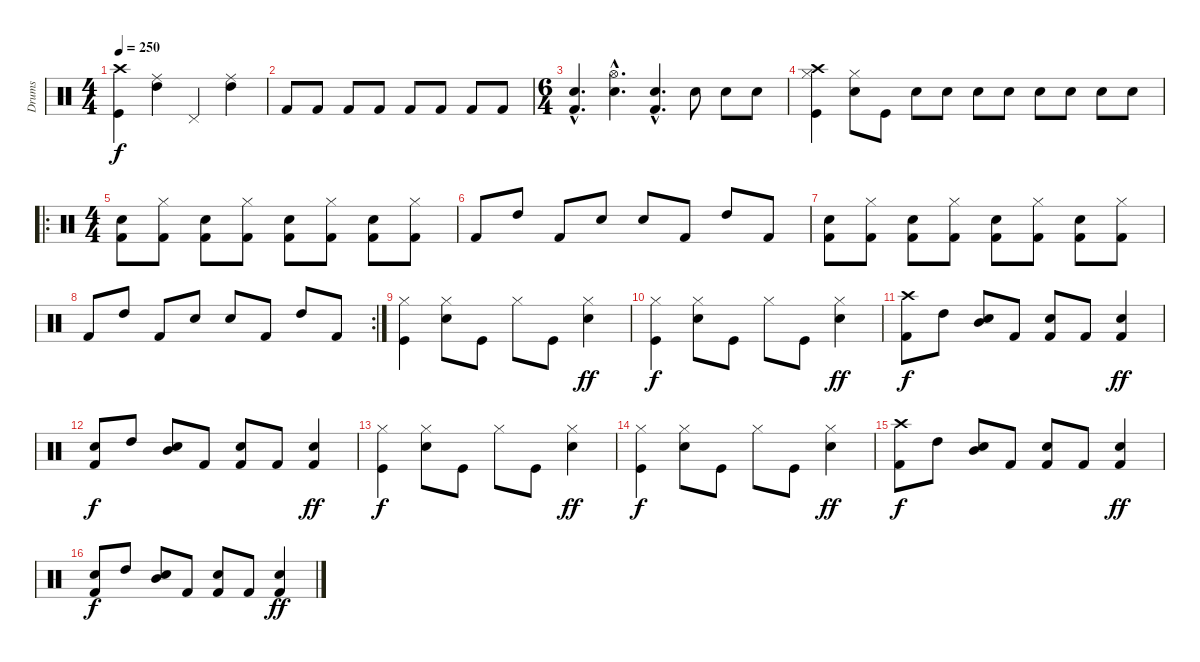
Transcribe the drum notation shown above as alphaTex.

\track ("Drums" "Drums") {instrument percussion}
\staff {score}
\articulation defaults
\ts (4 4)
\tempo 250
\clef neutral
\ks c
("Crash high (hit)" "Kick (hit)").4{dy f} ("Ride (middle)" "High Tom (hit)").4 "Pedal Hi-Hat (hit)".4 ("Ride (middle)" "High Tom (hit)").4 |
"Kick (hit) 2".8 "Kick (hit) 2".8 "Kick (hit) 2".8 "Kick (hit) 2".8 "Kick (hit) 2".8 "Kick (hit) 2".8 "Kick (hit) 2".8 "Kick (hit) 2".8 |
\ts (6 4)
("Electric Snare (hit)"{hac} "Kick (hit) 2"{hac}).4{d} ("Electric Snare (hit)"{hac} "Hi-Hat (open)"{hac}).4{d} ("Electric Snare (hit)"{hac} "Kick (hit) 2"{hac}).4{d} "Electric Snare (hit)".8 "Electric Snare (hit)".8 "Electric Snare (hit)".8 |
("Hi-Hat (closed)" "Kick (hit)" "Crash high (hit)").4 ("Hi-Hat (closed)" "Snare (hit) 2").8 "Kick (hit)".8 "Electric Snare (hit)".8 "Electric Snare (hit)".8 "Electric Snare (hit)".8 "Electric Snare (hit)".8 "Electric Snare (hit)".8 "Electric Snare (hit)".8 "Electric Snare (hit)".8 "Electric Snare (hit)".8 |
\ro
\ts (4 4)
("Kick (hit) 2" "Electric Snare (hit)").8 ("Kick (hit) 2" "Hi-Hat (closed)").8 ("Kick (hit) 2" "Electric Snare (hit)").8 ("Kick (hit) 2" "Hi-Hat (closed)").8 ("Kick (hit) 2" "Electric Snare (hit)").8 ("Kick (hit) 2" "Hi-Hat (closed)").8 ("Kick (hit) 2" "Electric Snare (hit)").8 ("Kick (hit) 2" "Hi-Hat (closed)").8 |
"Kick (hit) 2".8 "High Tom (hit)".8 "Kick (hit) 2".8 "Snare (hit) 2".8 "Electric Snare (hit)".8 "Kick (hit) 2".8 "High Tom (hit)".8 "Kick (hit) 2".8 |
("Kick (hit) 2" "Electric Snare (hit)").8 ("Kick (hit) 2" "Hi-Hat (closed)").8 ("Kick (hit) 2" "Electric Snare (hit)").8 ("Kick (hit) 2" "Hi-Hat (closed)").8 ("Kick (hit) 2" "Electric Snare (hit)").8 ("Kick (hit) 2" "Hi-Hat (closed)").8 ("Kick (hit) 2" "Electric Snare (hit)").8 ("Kick (hit) 2" "Hi-Hat (closed)").8 |
\rc 2 "Kick (hit) 2".8 "High Tom (hit)".8 "Kick (hit) 2".8 "Snare (hit) 2".8 "Electric Snare (hit)".8 "Kick (hit) 2".8 "High Tom (hit)".8 "Kick (hit) 2".8
|
("Hi-Hat (closed)" "Kick (hit)").4 ("Hi-Hat (closed)" "Snare (hit) 2").8 "Kick (hit)".8 "Hi-Hat (closed)".8 "Kick (hit)".8 ("Hi-Hat (closed)" "Snare (hit) 2").4{dy ff} |
("Hi-Hat (closed)" "Kick (hit)").4{dy f} ("Hi-Hat (closed)" "Snare (hit) 2").8 "Kick (hit)".8 "Hi-Hat (closed)".8 "Kick (hit)".8 ("Hi-Hat (closed)" "Snare (hit) 2").4{dy ff} |
("Kick (hit) 2" "Crash high (hit)").8{dy f} "High Tom (hit)".8 ("Mid Tom (hit)" "Electric Snare (hit)").8 "Kick (hit) 2".8 ("Kick (hit) 2" "Electric Snare (hit)").8 "Kick (hit) 2".8 ("Kick (hit) 2" "Electric Snare (hit)").4{dy ff} |
("Kick (hit) 2" "Electric Snare (hit)").8{dy f} "High Tom (hit)".8 ("Mid Tom (hit)" "Electric Snare (hit)").8 "Kick (hit) 2".8 ("Kick (hit) 2" "Electric Snare (hit)").8 "Kick (hit) 2".8 ("Kick (hit) 2" "Electric Snare (hit)").4{dy ff} |
("Hi-Hat (closed)" "Kick (hit)").4{dy f} ("Hi-Hat (closed)" "Snare (hit) 2").8 "Kick (hit)".8 "Hi-Hat (closed)".8 "Kick (hit)".8 ("Hi-Hat (closed)" "Snare (hit) 2").4{dy ff} |
("Hi-Hat (closed)" "Kick (hit)").4{dy f} ("Hi-Hat (closed)" "Snare (hit) 2").8 "Kick (hit)".8 "Hi-Hat (closed)".8 "Kick (hit)".8 ("Hi-Hat (closed)" "Snare (hit) 2").4{dy ff} |
("Kick (hit) 2" "Crash high (hit)").8{dy f} "High Tom (hit)".8 ("Mid Tom (hit)" "Electric Snare (hit)").8 "Kick (hit) 2".8 ("Kick (hit) 2" "Electric Snare (hit)").8 "Kick (hit) 2".8 ("Kick (hit) 2" "Electric Snare (hit)").4{dy ff} |
("Kick (hit) 2" "Electric Snare (hit)").8{dy f} "High Tom (hit)".8 ("Mid Tom (hit)" "Electric Snare (hit)").8 "Kick (hit) 2".8 ("Kick (hit) 2" "Electric Snare (hit)").8 "Kick (hit) 2".8 ("Kick (hit) 2" "Electric Snare (hit)").4{dy ff}
